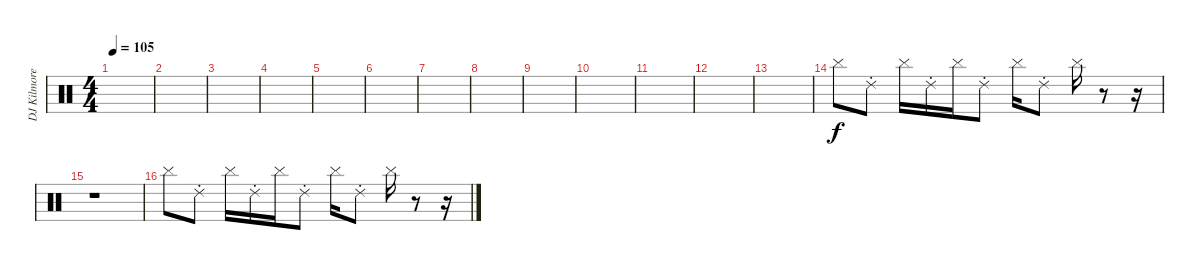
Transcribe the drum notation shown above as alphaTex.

\track ("DJ Kilmore" "DJ Kilmore") {instrument percussion}
\staff {score}
\articulation defaults
\ts (4 4)
\tempo 105
\clef neutral
\ks c
|
|
|
|
|
|
|
|
|
|
|
|
|
"Cymbal (hit)".8 "Ride (choke) 2".8 "Cymbal (hit)".16 "Ride (choke) 2".16 "Cymbal (hit)".16 "Ride (choke) 2".8 "Cymbal (hit)".16 "Ride (choke) 2".8 "Cymbal (hit)".16 r.8 r.16 |
r.1 |
"Cymbal (hit)".8 "Ride (choke) 2".8 "Cymbal (hit)".16 "Ride (choke) 2".16 "Cymbal (hit)".16 "Ride (choke) 2".8 "Cymbal (hit)".16 "Ride (choke) 2".8 "Cymbal (hit)".16 r.8 r.16
